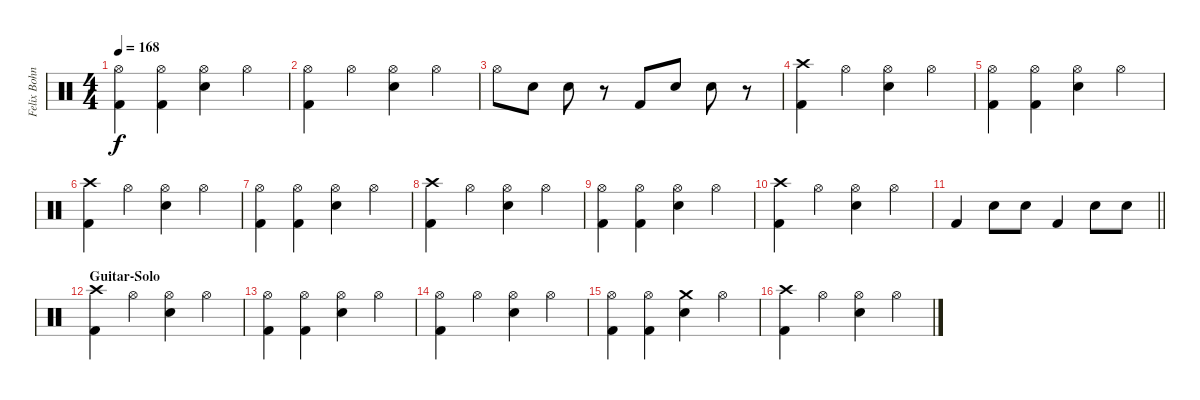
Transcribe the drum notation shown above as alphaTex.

\track ("Felix Bohnke" "Felix Bohn") {instrument percussion}
\staff {score}
\articulation defaults
\ts (4 4)
\tempo 168
\clef neutral
\ks c
("Hi-Hat (open)" "Kick (hit) 2").4{dy f} ("Hi-Hat (open)" "Kick (hit) 2").4 ("Hi-Hat (open)" "Snare (hit) 2").4 "Hi-Hat (open)".4 |
("Hi-Hat (open)" "Kick (hit) 2").4 "Hi-Hat (open)".4 ("Hi-Hat (open)" "Snare (hit) 2").4 "Hi-Hat (open)".4 |
"Hi-Hat (open)".8 "Snare (hit) 2".8 "Snare (hit) 2".8 r.8 "Kick (hit) 2".8 "Snare (hit) 2".8 "Snare (hit) 2".8 r.8 |
("Crash high (hit)" "Kick (hit) 2").4 "Hi-Hat (open)".4 ("Hi-Hat (open)" "Snare (hit) 2").4 "Hi-Hat (open)".4 |
("Hi-Hat (open)" "Kick (hit) 2").4 ("Hi-Hat (open)" "Kick (hit) 2").4 ("Hi-Hat (open)" "Snare (hit) 2").4 "Hi-Hat (open)".4 |
("Crash high (hit)" "Kick (hit) 2").4 "Hi-Hat (open)".4 ("Hi-Hat (open)" "Snare (hit) 2").4 "Hi-Hat (open)".4 |
("Hi-Hat (open)" "Kick (hit) 2").4 ("Hi-Hat (open)" "Kick (hit) 2").4 ("Hi-Hat (open)" "Snare (hit) 2").4 "Hi-Hat (open)".4 |
("Crash high (hit)" "Kick (hit) 2").4 "Hi-Hat (open)".4 ("Hi-Hat (open)" "Snare (hit) 2").4 "Hi-Hat (open)".4 |
("Hi-Hat (open)" "Kick (hit) 2").4 ("Hi-Hat (open)" "Kick (hit) 2").4 ("Hi-Hat (open)" "Snare (hit) 2").4 "Hi-Hat (open)".4 |
("Crash high (hit)" "Kick (hit) 2").4 "Hi-Hat (open)".4 ("Hi-Hat (open)" "Snare (hit) 2").4 "Hi-Hat (open)".4 |
\barLineRight lightlight "Kick (hit) 2".4 "Snare (hit) 2".8 "Snare (hit) 2".8 "Kick (hit) 2".4 "Snare (hit) 2".8 "Snare (hit) 2".8
|
\section ("" "Guitar-Solo")
("Crash high (hit)" "Kick (hit) 2").4 "Hi-Hat (open)".4 ("Hi-Hat (open)" "Snare (hit) 2").4 "Hi-Hat (open)".4 |
("Hi-Hat (open)" "Kick (hit) 2").4 ("Hi-Hat (open)" "Kick (hit) 2").4 ("Hi-Hat (open)" "Snare (hit) 2").4 "Hi-Hat (open)".4 |
("Hi-Hat (open)" "Kick (hit) 2").4 "Hi-Hat (open)".4 ("Hi-Hat (open)" "Snare (hit) 2").4 "Hi-Hat (open)".4 |
("Hi-Hat (open)" "Kick (hit) 2").4 ("Hi-Hat (open)" "Kick (hit) 2").4 ("Crash medium (hit)" "Snare (hit) 2").4 "Hi-Hat (open)".4 |
("Crash high (hit)" "Kick (hit) 2").4 "Hi-Hat (open)".4 ("Hi-Hat (open)" "Snare (hit) 2").4 "Hi-Hat (open)".4
